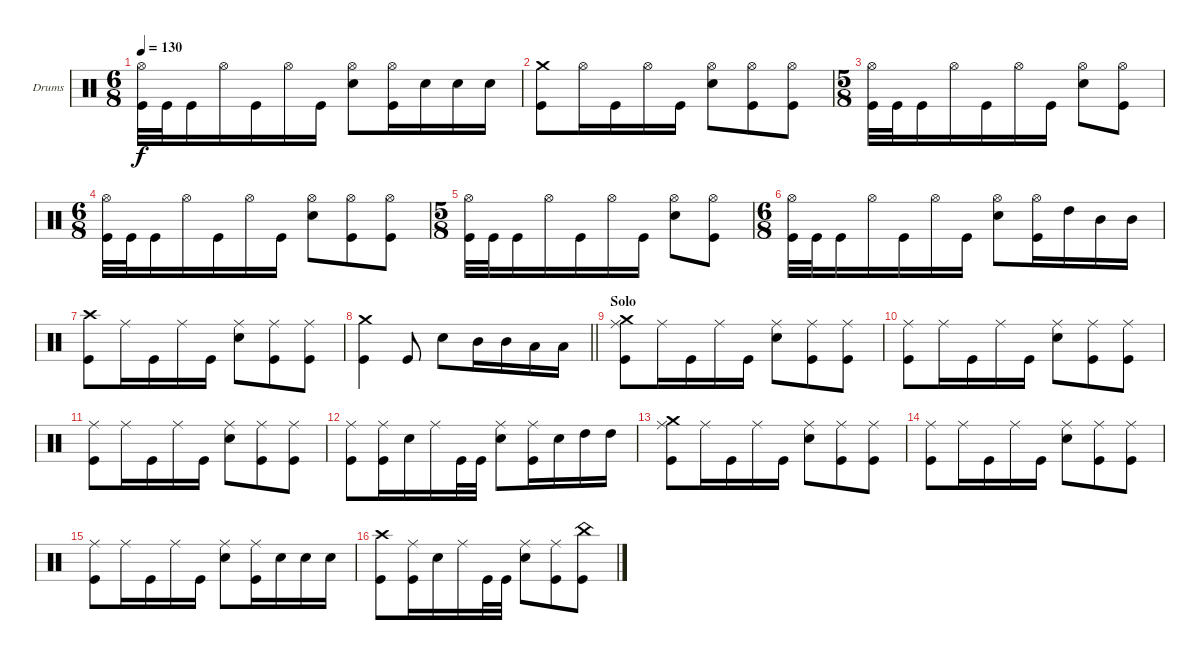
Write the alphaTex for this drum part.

\bracketExtendMode groupsimilarinstruments
\firstSystemTrackNameOrientation horizontal
\otherSystemsTrackNameOrientation horizontal
\track ("drums (Anton Zulganov)" "Drums") {instrument percussion}
\staff {score}
\articulation defaults
\ts (6 8)
\beaming (8 3 3)
\tempo 130
\clef neutral
\ks aminor
("Hi-Hat (open)" "Kick (hit)").32{dy f} "Kick (hit)".32 "Kick (hit)".16 "Hi-Hat (open)".16 "Kick (hit)".16 "Hi-Hat (open)".16 "Kick (hit)".16 ("Hi-Hat (open)" "Snare (hit) 2").8 ("Hi-Hat (open)" "Kick (hit)").16 "Snare (hit) 2".16 "Snare (hit) 2".16 "Snare (hit) 2".16 |
("Crash medium (hit)" "Kick (hit)").8 "Hi-Hat (open)".16 "Kick (hit)".16 "Hi-Hat (open)".16 "Kick (hit)".16 ("Hi-Hat (open)" "Snare (hit) 2").8 ("Hi-Hat (open)" "Kick (hit)").8 ("Hi-Hat (open)" "Kick (hit)").8 |
\ts (5 8)
\beaming (8 3 3)
("Hi-Hat (open)" "Kick (hit)").32 "Kick (hit)".32 "Kick (hit)".16 "Hi-Hat (open)".16 "Kick (hit)".16 "Hi-Hat (open)".16 "Kick (hit)".16 ("Hi-Hat (open)" "Snare (hit) 2").8 ("Hi-Hat (open)" "Kick (hit)").8 |
\ts (6 8)
\beaming (8 3 3)
("Kick (hit)" "Hi-Hat (open)").32 "Kick (hit)".32 "Kick (hit)".16 "Hi-Hat (open)".16 "Kick (hit)".16 "Hi-Hat (open)".16 "Kick (hit)".16 ("Hi-Hat (open)" "Snare (hit) 2").8 ("Hi-Hat (open)" "Kick (hit)").8 ("Hi-Hat (open)" "Kick (hit)").8 |
\ts (5 8)
\beaming (8 3 3)
("Kick (hit)" "Hi-Hat (open)").32 "Kick (hit)".32 "Kick (hit)".16 "Hi-Hat (open)".16 "Kick (hit)".16 "Hi-Hat (open)".16 "Kick (hit)".16 ("Hi-Hat (open)" "Snare (hit) 2").8 ("Hi-Hat (open)" "Kick (hit)").8 |
\ts (6 8)
\beaming (8 3 3)
("Kick (hit)" "Hi-Hat (open)").32 "Kick (hit)".32 "Kick (hit)".16 "Hi-Hat (open)".16 "Kick (hit)".16 "Hi-Hat (open)".16 "Kick (hit)".16 ("Hi-Hat (open)" "Snare (hit) 2").8 ("Hi-Hat (open)" "Kick (hit)").16 "High Tom (hit)".16 "Mid Tom (hit)".16 "Mid Tom (hit)".16 |
("Kick (hit)" "Crash high (hit)").8 "Ride (middle)".16 "Kick (hit)".16 "Ride (middle)".16 "Kick (hit)".16 ("Snare (hit) 2" "Ride (middle)").8 ("Kick (hit)" "Ride (middle)").8 ("Kick (hit)" "Ride (middle)").8 |
\barLineRight lightlight
("Crash medium (hit)" "Kick (hit)").4 "Kick (hit)".8 "Snare (hit) 2".8 "Mid Tom (hit)".16 "Mid Tom (hit)".16 "Low Tom (hit)".16 "Low Tom (hit)".16 |
\section ("" "Solo")
("Crash medium (hit)" "Kick (hit)" "Ride (middle)").8 "Ride (middle)".16 "Kick (hit)".16 "Ride (middle)".16 "Kick (hit)".16 ("Snare (hit) 2" "Ride (middle)").8 ("Kick (hit)" "Ride (middle)").8 ("Kick (hit)" "Ride (middle)").8 |
("Kick (hit)" "Ride (middle)").8 "Ride (middle)".16 "Kick (hit)".16 "Ride (middle)".16 "Kick (hit)".16 ("Snare (hit) 2" "Ride (middle)").8 ("Kick (hit)" "Ride (middle)").8 ("Kick (hit)" "Ride (middle)").8 |
("Kick (hit)" "Ride (middle)").8 "Ride (middle)".16 "Kick (hit)".16 "Ride (middle)".16 "Kick (hit)".16 ("Snare (hit) 2" "Ride (middle)").8 ("Kick (hit)" "Ride (middle)").8 ("Kick (hit)" "Ride (middle)").8 |
("Kick (hit)" "Ride (middle)").8 ("Kick (hit)" "Ride (middle)").16 "Snare (hit) 2".16 "Ride (middle)".16 "Kick (hit)".32 "Kick (hit)".32 ("Snare (hit) 2" "Ride (middle)").8 ("Kick (hit)" "Ride (middle)").16 "Snare (hit) 2".16 "High Tom (hit)".16 "High Tom (hit)".16 |
("Crash medium (hit)" "Kick (hit)" "Ride (middle)").8 "Ride (middle)".16 "Kick (hit)".16 "Ride (middle)".16 "Kick (hit)".16 ("Snare (hit) 2" "Ride (middle)").8 ("Kick (hit)" "Ride (middle)").8 ("Kick (hit)" "Ride (middle)").8 |
("Kick (hit)" "Ride (middle)").8 "Ride (middle)".16 "Kick (hit)".16 "Ride (middle)".16 "Kick (hit)".16 ("Snare (hit) 2" "Ride (middle)").8 ("Kick (hit)" "Ride (middle)").8 ("Kick (hit)" "Ride (middle)").8 |
("Kick (hit)" "Ride (middle)").8 "Ride (middle)".16 "Kick (hit)".16 "Ride (middle)".16 "Kick (hit)".16 ("Snare (hit) 2" "Ride (middle)").8 ("Kick (hit)" "Ride (middle)").16 "Snare (hit) 2".16 "Snare (hit) 2".16 "Snare (hit) 2".16 |
("Kick (hit)" "Crash high (hit)").8 ("Kick (hit)" "Ride (middle)").16 "Snare (hit) 2".16 "Ride (middle)".16 "Kick (hit)".32 "Kick (hit)".32 ("Snare (hit) 2" "Ride (middle)").8 ("Kick (hit)" "Ride (middle)").8 ("Kick (hit)" "China (hit)").8
